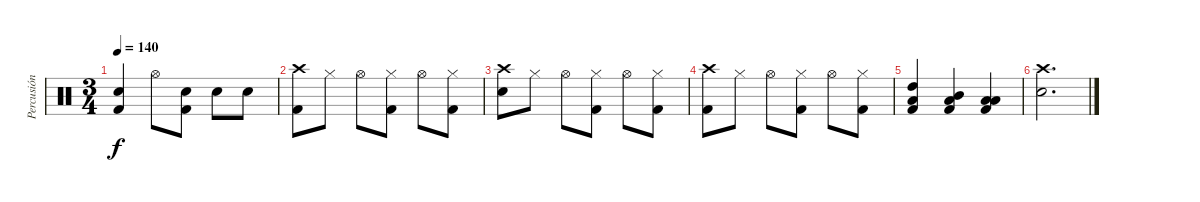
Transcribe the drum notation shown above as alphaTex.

\track ("Percusión" "Percusión") {instrument percussion}
\staff {score}
\articulation defaults
\ts (3 4)
\tempo 140
\clef neutral
\ks c
("Electric Snare (hit)" "Kick (hit) 2").4{dy f} "Hi-Hat (open)".8 ("Electric Snare (hit)" "Kick (hit) 2").8 "Electric Snare (hit)".8 "Electric Snare (hit)".8 |
("Crash high (hit)" "Kick (hit) 2").8 "Hi-Hat (closed)".8 "Hi-Hat (open)".8 ("Hi-Hat (closed)" "Kick (hit) 2").8 "Hi-Hat (open)".8 ("Hi-Hat (closed)" "Kick (hit) 2").8 |
("Crash high (hit)" "Electric Snare (hit)").8 "Hi-Hat (closed)".8 "Hi-Hat (open)".8 ("Hi-Hat (closed)" "Kick (hit) 2").8 "Hi-Hat (open)".8 ("Hi-Hat (closed)" "Kick (hit) 2").8 |
("Crash high (hit)" "Kick (hit) 2").8 "Hi-Hat (closed)".8 "Hi-Hat (open)".8 ("Hi-Hat (closed)" "Kick (hit) 2").8 "Hi-Hat (open)".8 ("Hi-Hat (closed)" "Kick (hit) 2").8 |
("High Tom (hit)" "Low Floor Tom (hit)" "Kick (hit) 2").4 ("Mid Tom (hit)" "Low Floor Tom (hit)" "Kick (hit) 2").4 ("Low Tom (hit)" "Low Floor Tom (hit)" "Kick (hit) 2").4 |
("Crash high (hit)" "Electric Snare (hit)").2{d}
